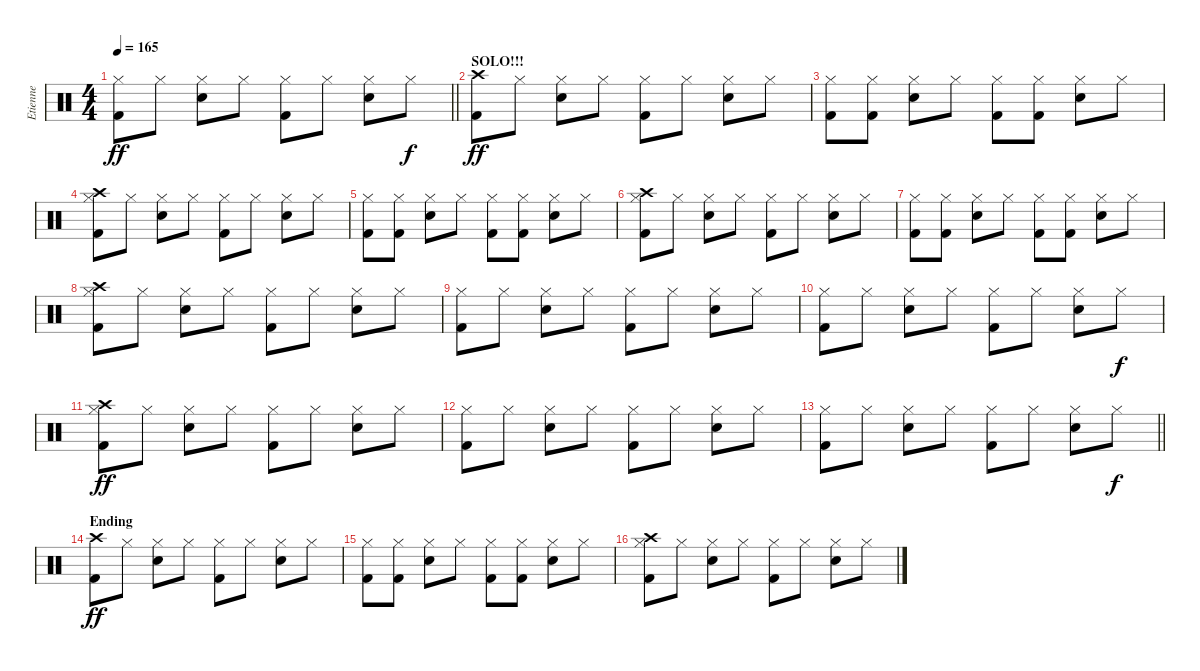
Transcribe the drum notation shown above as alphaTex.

\track ("Etienne" "Etienne") {instrument percussion}
\staff {score}
\articulation defaults
\ts (4 4)
\tempo 165
\clef neutral
\barLineRight lightlight
\ks c
("Hi-Hat (closed)" "Kick (hit) 2").8{dy ff} "Hi-Hat (closed)".8 ("Hi-Hat (closed)" "Electric Snare (hit)").8 "Hi-Hat (closed)".8 ("Hi-Hat (closed)" "Kick (hit) 2").8 "Hi-Hat (closed)".8 ("Hi-Hat (closed)" "Electric Snare (hit)").8 "Hi-Hat (closed)".8{dy f} |
\section ("" "SOLO!!!")
("Crash high (hit)" "Kick (hit) 2").8{dy ff} "Hi-Hat (closed)".8 ("Hi-Hat (closed)" "Electric Snare (hit)").8 "Hi-Hat (closed)".8 ("Hi-Hat (closed)" "Kick (hit) 2").8 "Hi-Hat (closed)".8 ("Hi-Hat (closed)" "Electric Snare (hit)").8 "Hi-Hat (closed)".8 |
("Hi-Hat (closed)" "Kick (hit) 2").8 ("Hi-Hat (closed)" "Kick (hit) 2").8 ("Hi-Hat (closed)" "Electric Snare (hit)").8 "Hi-Hat (closed)".8 ("Hi-Hat (closed)" "Kick (hit) 2").8 ("Hi-Hat (closed)" "Kick (hit) 2").8 ("Hi-Hat (closed)" "Electric Snare (hit)").8 "Hi-Hat (closed)".8 |
("Crash high (hit)" "Hi-Hat (closed)" "Kick (hit) 2").8 "Hi-Hat (closed)".8 ("Hi-Hat (closed)" "Electric Snare (hit)").8 "Hi-Hat (closed)".8 ("Hi-Hat (closed)" "Kick (hit) 2").8 "Hi-Hat (closed)".8 ("Hi-Hat (closed)" "Electric Snare (hit)").8 "Hi-Hat (closed)".8 |
("Hi-Hat (closed)" "Kick (hit) 2").8 ("Hi-Hat (closed)" "Kick (hit) 2").8 ("Hi-Hat (closed)" "Electric Snare (hit)").8 "Hi-Hat (closed)".8 ("Hi-Hat (closed)" "Kick (hit) 2").8 ("Hi-Hat (closed)" "Kick (hit) 2").8 ("Hi-Hat (closed)" "Electric Snare (hit)").8 "Hi-Hat (closed)".8 |
("Crash high (hit)" "Hi-Hat (closed)" "Kick (hit) 2").8 "Hi-Hat (closed)".8 ("Hi-Hat (closed)" "Electric Snare (hit)").8 "Hi-Hat (closed)".8 ("Hi-Hat (closed)" "Kick (hit) 2").8 "Hi-Hat (closed)".8 ("Hi-Hat (closed)" "Electric Snare (hit)").8 "Hi-Hat (closed)".8 |
("Hi-Hat (closed)" "Kick (hit) 2").8 ("Hi-Hat (closed)" "Kick (hit) 2").8 ("Hi-Hat (closed)" "Electric Snare (hit)").8 "Hi-Hat (closed)".8 ("Hi-Hat (closed)" "Kick (hit) 2").8 ("Hi-Hat (closed)" "Kick (hit) 2").8 ("Hi-Hat (closed)" "Electric Snare (hit)").8 "Hi-Hat (closed)".8 |
("Crash high (hit)" "Hi-Hat (closed)" "Kick (hit) 2").8 "Hi-Hat (closed)".8 ("Hi-Hat (closed)" "Electric Snare (hit)").8 "Hi-Hat (closed)".8 ("Hi-Hat (closed)" "Kick (hit) 2").8 "Hi-Hat (closed)".8 ("Hi-Hat (closed)" "Electric Snare (hit)").8 "Hi-Hat (closed)".8 |
("Hi-Hat (closed)" "Kick (hit) 2").8 "Hi-Hat (closed)".8 ("Hi-Hat (closed)" "Electric Snare (hit)").8 "Hi-Hat (closed)".8 ("Hi-Hat (closed)" "Kick (hit) 2").8 "Hi-Hat (closed)".8 ("Hi-Hat (closed)" "Electric Snare (hit)").8 "Hi-Hat (closed)".8 |
("Hi-Hat (closed)" "Kick (hit) 2").8 "Hi-Hat (closed)".8 ("Hi-Hat (closed)" "Electric Snare (hit)").8 "Hi-Hat (closed)".8 ("Hi-Hat (closed)" "Kick (hit) 2").8 "Hi-Hat (closed)".8 ("Hi-Hat (closed)" "Electric Snare (hit)").8 "Hi-Hat (closed)".8{dy f} |
("Crash high (hit)" "Hi-Hat (closed)" "Kick (hit) 2").8{dy ff} "Hi-Hat (closed)".8 ("Hi-Hat (closed)" "Electric Snare (hit)").8 "Hi-Hat (closed)".8 ("Hi-Hat (closed)" "Kick (hit) 2").8 "Hi-Hat (closed)".8 ("Hi-Hat (closed)" "Electric Snare (hit)").8 "Hi-Hat (closed)".8 |
("Hi-Hat (closed)" "Kick (hit) 2").8 "Hi-Hat (closed)".8 ("Hi-Hat (closed)" "Electric Snare (hit)").8 "Hi-Hat (closed)".8 ("Hi-Hat (closed)" "Kick (hit) 2").8 "Hi-Hat (closed)".8 ("Hi-Hat (closed)" "Electric Snare (hit)").8 "Hi-Hat (closed)".8 |
\barLineRight lightlight
("Hi-Hat (closed)" "Kick (hit) 2").8 "Hi-Hat (closed)".8 ("Hi-Hat (closed)" "Electric Snare (hit)").8 "Hi-Hat (closed)".8 ("Hi-Hat (closed)" "Kick (hit) 2").8 "Hi-Hat (closed)".8 ("Hi-Hat (closed)" "Electric Snare (hit)").8 "Hi-Hat (closed)".8{dy f} |
\section ("" "Ending")
("Crash high (hit)" "Kick (hit) 2").8{dy ff} "Hi-Hat (closed)".8 ("Hi-Hat (closed)" "Electric Snare (hit)").8 "Hi-Hat (closed)".8 ("Hi-Hat (closed)" "Kick (hit) 2").8 "Hi-Hat (closed)".8 ("Hi-Hat (closed)" "Electric Snare (hit)").8 "Hi-Hat (closed)".8 |
("Hi-Hat (closed)" "Kick (hit) 2").8 ("Hi-Hat (closed)" "Kick (hit) 2").8 ("Hi-Hat (closed)" "Electric Snare (hit)").8 "Hi-Hat (closed)".8 ("Hi-Hat (closed)" "Kick (hit) 2").8 ("Hi-Hat (closed)" "Kick (hit) 2").8 ("Hi-Hat (closed)" "Electric Snare (hit)").8 "Hi-Hat (closed)".8 |
("Crash high (hit)" "Hi-Hat (closed)" "Kick (hit) 2").8 "Hi-Hat (closed)".8 ("Hi-Hat (closed)" "Electric Snare (hit)").8 "Hi-Hat (closed)".8 ("Hi-Hat (closed)" "Kick (hit) 2").8 "Hi-Hat (closed)".8 ("Hi-Hat (closed)" "Electric Snare (hit)").8 "Hi-Hat (closed)".8
